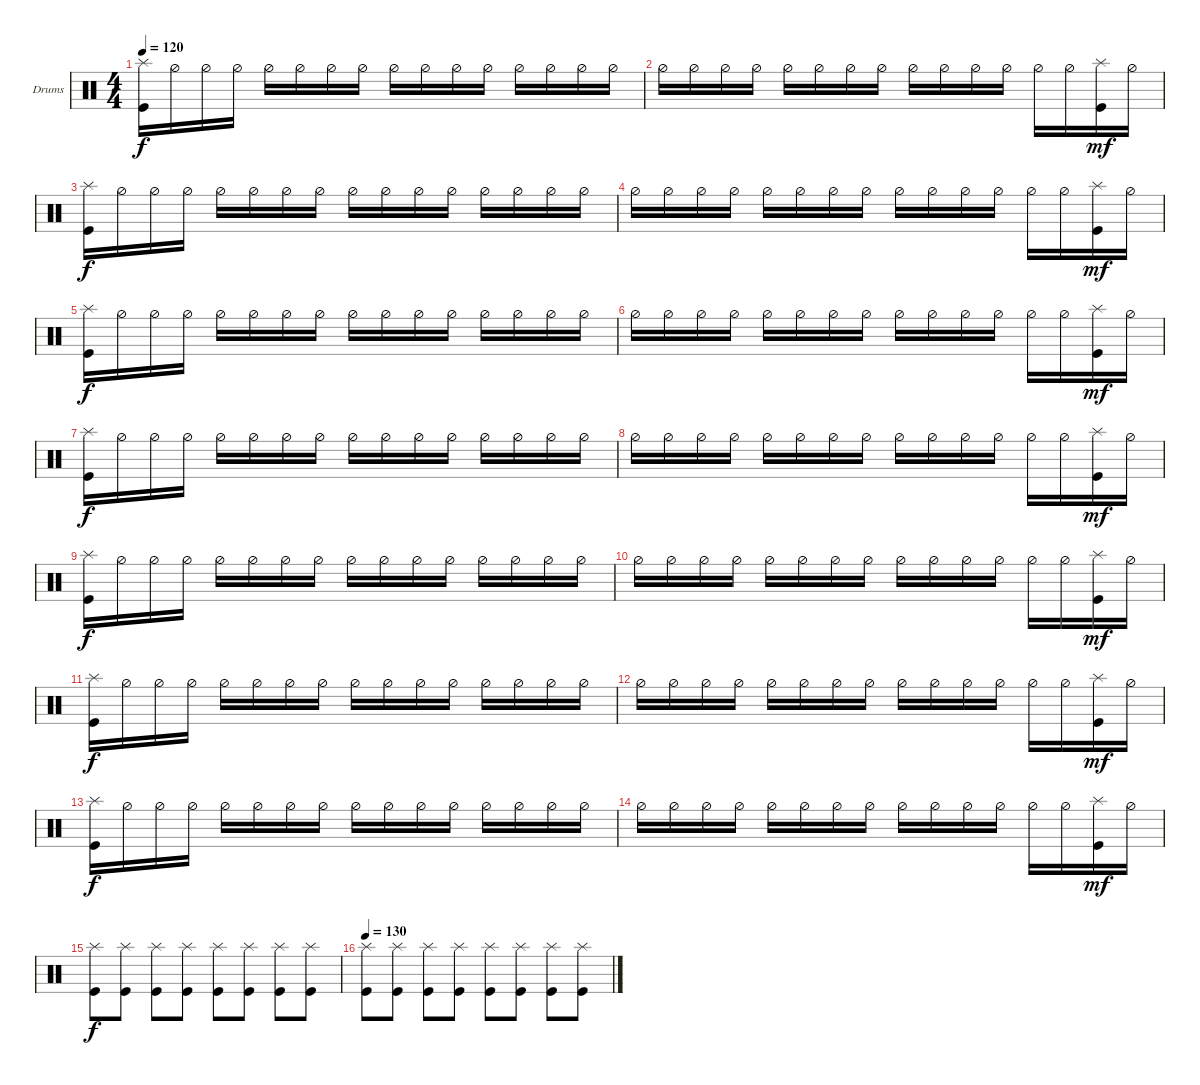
\bracketExtendMode groupsimilarinstruments
\firstSystemTrackNameOrientation horizontal
\otherSystemsTrackNameOrientation horizontal
\track ("Drumkit" "Drums") {instrument percussion}
\staff {score}
\articulation defaults
\ts (4 4)
\tempo 120
\clef neutral
\scale
0.333333
\ks c
("Splash (hit)" "Kick (hit)").16{dy f} "Hi-Hat (half)".16 "Hi-Hat (half)".16 "Hi-Hat (half)".16 "Hi-Hat (half)".16 "Hi-Hat (half)".16 "Hi-Hat (half)".16 "Hi-Hat (half)".16 "Hi-Hat (half)".16 "Hi-Hat (half)".16 "Hi-Hat (half)".16 "Hi-Hat (half)".16 "Hi-Hat (half)".16 "Hi-Hat (half)".16 "Hi-Hat (half)".16 "Hi-Hat (half)".16 |
\scale
0.333333 "Hi-Hat (half)".16 "Hi-Hat (half)".16 "Hi-Hat (half)".16 "Hi-Hat (half)".16 "Hi-Hat (half)".16 "Hi-Hat (half)".16 "Hi-Hat (half)".16 "Hi-Hat (half)".16 "Hi-Hat (half)".16 "Hi-Hat (half)".16 "Hi-Hat (half)".16 "Hi-Hat (half)".16 "Hi-Hat (half)".16 "Hi-Hat (half)".16 ("Kick (hit)" "Splash (hit)").16{dy mf} "Hi-Hat (half)".16 |
\scale
0.333333 ("Splash (hit)" "Kick (hit)").16{dy f} "Hi-Hat (half)".16 "Hi-Hat (half)".16 "Hi-Hat (half)".16 "Hi-Hat (half)".16 "Hi-Hat (half)".16 "Hi-Hat (half)".16 "Hi-Hat (half)".16 "Hi-Hat (half)".16 "Hi-Hat (half)".16 "Hi-Hat (half)".16 "Hi-Hat (half)".16 "Hi-Hat (half)".16 "Hi-Hat (half)".16 "Hi-Hat (half)".16 "Hi-Hat (half)".16 |
\scale
0.333333 "Hi-Hat (half)".16 "Hi-Hat (half)".16 "Hi-Hat (half)".16 "Hi-Hat (half)".16 "Hi-Hat (half)".16 "Hi-Hat (half)".16 "Hi-Hat (half)".16 "Hi-Hat (half)".16 "Hi-Hat (half)".16 "Hi-Hat (half)".16 "Hi-Hat (half)".16 "Hi-Hat (half)".16 "Hi-Hat (half)".16 "Hi-Hat (half)".16 ("Kick (hit)" "Splash (hit)").16{dy mf} "Hi-Hat (half)".16 |
\scale
0.333333 ("Splash (hit)" "Kick (hit)").16{dy f} "Hi-Hat (half)".16 "Hi-Hat (half)".16 "Hi-Hat (half)".16 "Hi-Hat (half)".16 "Hi-Hat (half)".16 "Hi-Hat (half)".16 "Hi-Hat (half)".16 "Hi-Hat (half)".16 "Hi-Hat (half)".16 "Hi-Hat (half)".16 "Hi-Hat (half)".16 "Hi-Hat (half)".16 "Hi-Hat (half)".16 "Hi-Hat (half)".16 "Hi-Hat (half)".16 |
\scale
0.333333 "Hi-Hat (half)".16 "Hi-Hat (half)".16 "Hi-Hat (half)".16 "Hi-Hat (half)".16 "Hi-Hat (half)".16 "Hi-Hat (half)".16 "Hi-Hat (half)".16 "Hi-Hat (half)".16 "Hi-Hat (half)".16 "Hi-Hat (half)".16 "Hi-Hat (half)".16 "Hi-Hat (half)".16 "Hi-Hat (half)".16 "Hi-Hat (half)".16 ("Kick (hit)" "Splash (hit)").16{dy mf} "Hi-Hat (half)".16 |
\scale
0.333333 ("Splash (hit)" "Kick (hit)").16{dy f} "Hi-Hat (half)".16 "Hi-Hat (half)".16 "Hi-Hat (half)".16 "Hi-Hat (half)".16 "Hi-Hat (half)".16 "Hi-Hat (half)".16 "Hi-Hat (half)".16 "Hi-Hat (half)".16 "Hi-Hat (half)".16 "Hi-Hat (half)".16 "Hi-Hat (half)".16 "Hi-Hat (half)".16 "Hi-Hat (half)".16 "Hi-Hat (half)".16 "Hi-Hat (half)".16 |
\scale
0.333333 "Hi-Hat (half)".16 "Hi-Hat (half)".16 "Hi-Hat (half)".16 "Hi-Hat (half)".16 "Hi-Hat (half)".16 "Hi-Hat (half)".16 "Hi-Hat (half)".16 "Hi-Hat (half)".16 "Hi-Hat (half)".16 "Hi-Hat (half)".16 "Hi-Hat (half)".16 "Hi-Hat (half)".16 "Hi-Hat (half)".16 "Hi-Hat (half)".16 ("Kick (hit)" "Splash (hit)").16{dy mf} "Hi-Hat (half)".16 |
\scale
0.333333 ("Splash (hit)" "Kick (hit)").16{dy f} "Hi-Hat (half)".16 "Hi-Hat (half)".16 "Hi-Hat (half)".16 "Hi-Hat (half)".16 "Hi-Hat (half)".16 "Hi-Hat (half)".16 "Hi-Hat (half)".16 "Hi-Hat (half)".16 "Hi-Hat (half)".16 "Hi-Hat (half)".16 "Hi-Hat (half)".16 "Hi-Hat (half)".16 "Hi-Hat (half)".16 "Hi-Hat (half)".16 "Hi-Hat (half)".16 |
\scale
0.333333 "Hi-Hat (half)".16 "Hi-Hat (half)".16 "Hi-Hat (half)".16 "Hi-Hat (half)".16 "Hi-Hat (half)".16 "Hi-Hat (half)".16 "Hi-Hat (half)".16 "Hi-Hat (half)".16 "Hi-Hat (half)".16 "Hi-Hat (half)".16 "Hi-Hat (half)".16 "Hi-Hat (half)".16 "Hi-Hat (half)".16 "Hi-Hat (half)".16 ("Kick (hit)" "Splash (hit)").16{dy mf} "Hi-Hat (half)".16 |
\scale
0.333333 ("Splash (hit)" "Kick (hit)").16{dy f} "Hi-Hat (half)".16 "Hi-Hat (half)".16 "Hi-Hat (half)".16 "Hi-Hat (half)".16 "Hi-Hat (half)".16 "Hi-Hat (half)".16 "Hi-Hat (half)".16 "Hi-Hat (half)".16 "Hi-Hat (half)".16 "Hi-Hat (half)".16 "Hi-Hat (half)".16 "Hi-Hat (half)".16 "Hi-Hat (half)".16 "Hi-Hat (half)".16 "Hi-Hat (half)".16 |
\scale
0.333333 "Hi-Hat (half)".16 "Hi-Hat (half)".16 "Hi-Hat (half)".16 "Hi-Hat (half)".16 "Hi-Hat (half)".16 "Hi-Hat (half)".16 "Hi-Hat (half)".16 "Hi-Hat (half)".16 "Hi-Hat (half)".16 "Hi-Hat (half)".16 "Hi-Hat (half)".16 "Hi-Hat (half)".16 "Hi-Hat (half)".16 "Hi-Hat (half)".16 ("Kick (hit)" "Splash (hit)").16{dy mf} "Hi-Hat (half)".16 |
\scale
0.333333 ("Splash (hit)" "Kick (hit)").16{dy f} "Hi-Hat (half)".16 "Hi-Hat (half)".16 "Hi-Hat (half)".16 "Hi-Hat (half)".16 "Hi-Hat (half)".16 "Hi-Hat (half)".16 "Hi-Hat (half)".16 "Hi-Hat (half)".16 "Hi-Hat (half)".16 "Hi-Hat (half)".16 "Hi-Hat (half)".16 "Hi-Hat (half)".16 "Hi-Hat (half)".16 "Hi-Hat (half)".16 "Hi-Hat (half)".16 |
\scale
0.333333 "Hi-Hat (half)".16 "Hi-Hat (half)".16 "Hi-Hat (half)".16 "Hi-Hat (half)".16 "Hi-Hat (half)".16 "Hi-Hat (half)".16 "Hi-Hat (half)".16 "Hi-Hat (half)".16 "Hi-Hat (half)".16 "Hi-Hat (half)".16 "Hi-Hat (half)".16 "Hi-Hat (half)".16 "Hi-Hat (half)".16 "Hi-Hat (half)".16 ("Kick (hit)" "Splash (hit)").16{dy mf} "Hi-Hat (half)".16 |
\scale
0.333333 ("Splash (hit)" "Kick (hit)").8{dy f} ("Kick (hit)" "Splash (hit)").8 ("Splash (hit)" "Kick (hit)").8 ("Kick (hit)" "Splash (hit)").8 ("Splash (hit)" "Kick (hit)").8 ("Kick (hit)" "Splash (hit)").8 ("Splash (hit)" "Kick (hit)").8 ("Kick (hit)" "Splash (hit)").8 |
\tempo 130
\scale
0.333333 ("Splash (hit)" "Kick (hit)").8 ("Kick (hit)" "Splash (hit)").8 ("Splash (hit)" "Kick (hit)").8 ("Kick (hit)" "Splash (hit)").8 ("Splash (hit)" "Kick (hit)").8 ("Kick (hit)" "Splash (hit)").8 ("Splash (hit)" "Kick (hit)").8 ("Kick (hit)" "Splash (hit)").8
